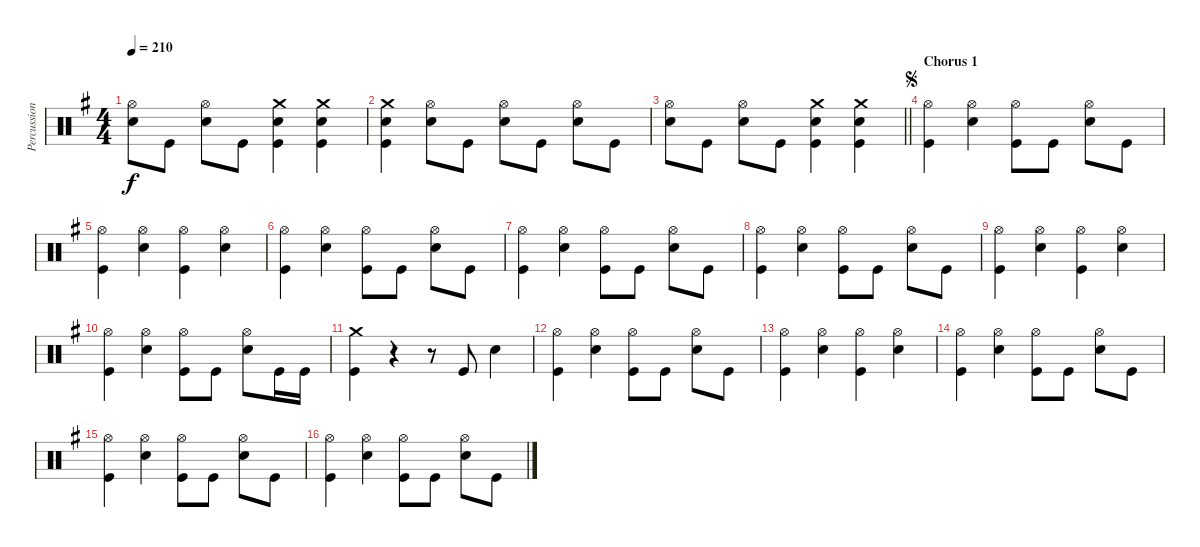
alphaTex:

\track ("Percussion" "Percussion") {instrument percussion}
\staff {score}
\articulation defaults
\ts (4 4)
\tempo 210
\clef neutral
\ks g
("Hi-Hat (open)" "Snare (hit) 2").8{dy f} "Kick (hit)".8 ("Hi-Hat (open)" "Snare (hit) 2").8 "Kick (hit)".8 ("Crash medium (hit)" "Snare (hit) 2" "Kick (hit)").4 ("Crash medium (hit)" "Snare (hit) 2" "Kick (hit)").4 |
("Crash medium (hit)" "Snare (hit) 2" "Kick (hit)").4 ("Hi-Hat (open)" "Snare (hit) 2").8 "Kick (hit)".8 ("Hi-Hat (open)" "Snare (hit) 2").8 "Kick (hit)".8 ("Hi-Hat (open)" "Snare (hit) 2").8 "Kick (hit)".8 |
\barLineRight lightlight
("Hi-Hat (open)" "Snare (hit) 2").8 "Kick (hit)".8 ("Hi-Hat (open)" "Snare (hit) 2").8 "Kick (hit)".8 ("Crash medium (hit)" "Snare (hit) 2" "Kick (hit)").4 ("Crash medium (hit)" "Snare (hit) 2" "Kick (hit)").4 |
\section ("" "Chorus 1")
\jump segno
("Hi-Hat (open)" "Kick (hit)").4 ("Hi-Hat (open)" "Snare (hit) 2").4 ("Hi-Hat (open)" "Kick (hit)").8 "Kick (hit)".8 ("Hi-Hat (open)" "Snare (hit) 2").8 "Kick (hit)".8 |
("Hi-Hat (open)" "Kick (hit)").4 ("Hi-Hat (open)" "Snare (hit) 2").4 ("Hi-Hat (open)" "Kick (hit)").4 ("Hi-Hat (open)" "Snare (hit) 2").4 |
("Hi-Hat (open)" "Kick (hit)").4 ("Hi-Hat (open)" "Snare (hit) 2").4 ("Hi-Hat (open)" "Kick (hit)").8 "Kick (hit)".8 ("Hi-Hat (open)" "Snare (hit) 2").8 "Kick (hit)".8 |
("Hi-Hat (open)" "Kick (hit)").4 ("Hi-Hat (open)" "Snare (hit) 2").4 ("Hi-Hat (open)" "Kick (hit)").8 "Kick (hit)".8 ("Hi-Hat (open)" "Snare (hit) 2").8 "Kick (hit)".8 |
("Hi-Hat (open)" "Kick (hit)").4 ("Hi-Hat (open)" "Snare (hit) 2").4 ("Hi-Hat (open)" "Kick (hit)").8 "Kick (hit)".8 ("Hi-Hat (open)" "Snare (hit) 2").8 "Kick (hit)".8 |
("Hi-Hat (open)" "Kick (hit)").4 ("Hi-Hat (open)" "Snare (hit) 2").4 ("Hi-Hat (open)" "Kick (hit)").4 ("Hi-Hat (open)" "Snare (hit) 2").4 |
("Hi-Hat (open)" "Kick (hit)").4 ("Hi-Hat (open)" "Snare (hit) 2").4 ("Hi-Hat (open)" "Kick (hit)").8 "Kick (hit)".8 ("Hi-Hat (open)" "Snare (hit) 2").8 "Kick (hit)".16 "Kick (hit)".16 |
("Crash medium (hit)" "Kick (hit)").4 r.4 r.8 "Kick (hit)".8 "Snare (hit) 2".4 |
("Hi-Hat (open)" "Kick (hit)").4 ("Hi-Hat (open)" "Snare (hit) 2").4 ("Hi-Hat (open)" "Kick (hit)").8 "Kick (hit)".8 ("Hi-Hat (open)" "Snare (hit) 2").8 "Kick (hit)".8 |
("Hi-Hat (open)" "Kick (hit)").4 ("Hi-Hat (open)" "Snare (hit) 2").4 ("Hi-Hat (open)" "Kick (hit)").4 ("Hi-Hat (open)" "Snare (hit) 2").4 |
("Hi-Hat (open)" "Kick (hit)").4 ("Hi-Hat (open)" "Snare (hit) 2").4 ("Hi-Hat (open)" "Kick (hit)").8 "Kick (hit)".8 ("Hi-Hat (open)" "Snare (hit) 2").8 "Kick (hit)".8 |
("Hi-Hat (open)" "Kick (hit)").4 ("Hi-Hat (open)" "Snare (hit) 2").4 ("Hi-Hat (open)" "Kick (hit)").8 "Kick (hit)".8 ("Hi-Hat (open)" "Snare (hit) 2").8 "Kick (hit)".8 |
("Hi-Hat (open)" "Kick (hit)").4 ("Hi-Hat (open)" "Snare (hit) 2").4 ("Hi-Hat (open)" "Kick (hit)").8 "Kick (hit)".8 ("Hi-Hat (open)" "Snare (hit) 2").8 "Kick (hit)".8
